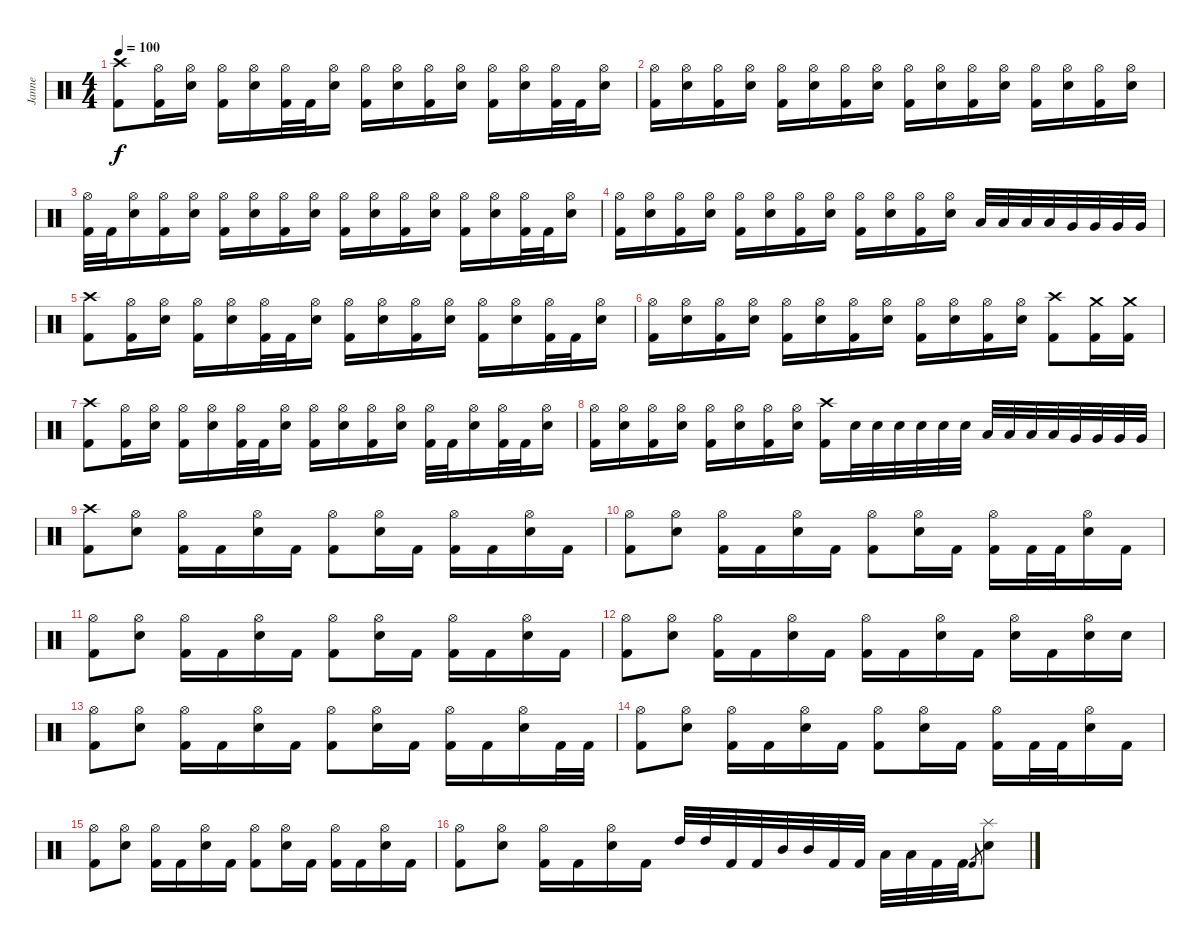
\track ("Janne" "Janne") {instrument percussion}
\staff {score}
\articulation defaults
\ts (4 4)
\tempo 100
\clef neutral
\ks c
("Crash high (hit)" "Kick (hit) 2").8{dy f volume 13} ("Hi-Hat (open)" "Kick (hit) 2").16 ("Hi-Hat (open)" "Electric Snare (hit)").16 ("Hi-Hat (open)" "Kick (hit) 2").16 ("Hi-Hat (open)" "Electric Snare (hit)").16 ("Hi-Hat (open)" "Kick (hit) 2").32 "Kick (hit) 2".32 ("Hi-Hat (open)" "Electric Snare (hit)").16 ("Hi-Hat (open)" "Kick (hit) 2").16 ("Hi-Hat (open)" "Electric Snare (hit)").16 ("Hi-Hat (open)" "Kick (hit) 2").16 ("Hi-Hat (open)" "Electric Snare (hit)").16 ("Hi-Hat (open)" "Kick (hit) 2").16 ("Hi-Hat (open)" "Electric Snare (hit)").16 ("Hi-Hat (open)" "Kick (hit) 2").32 "Kick (hit) 2".32 ("Hi-Hat (open)" "Electric Snare (hit)").16 |
("Hi-Hat (open)" "Kick (hit) 2").16 ("Hi-Hat (open)" "Electric Snare (hit)").16 ("Hi-Hat (open)" "Kick (hit) 2").16 ("Hi-Hat (open)" "Electric Snare (hit)").16 ("Hi-Hat (open)" "Kick (hit) 2").16 ("Hi-Hat (open)" "Electric Snare (hit)").16 ("Hi-Hat (open)" "Kick (hit) 2").16 ("Hi-Hat (open)" "Electric Snare (hit)").16 ("Hi-Hat (open)" "Kick (hit) 2").16 ("Hi-Hat (open)" "Electric Snare (hit)").16 ("Hi-Hat (open)" "Kick (hit) 2").16 ("Hi-Hat (open)" "Electric Snare (hit)").16 ("Hi-Hat (open)" "Kick (hit) 2").16 ("Hi-Hat (open)" "Electric Snare (hit)").16 ("Hi-Hat (open)" "Kick (hit) 2").16 ("Hi-Hat (open)" "Electric Snare (hit)").16 |
("Hi-Hat (open)" "Kick (hit) 2").32 "Kick (hit) 2".32 ("Hi-Hat (open)" "Electric Snare (hit)").16 ("Hi-Hat (open)" "Kick (hit) 2").16 ("Hi-Hat (open)" "Electric Snare (hit)").16 ("Hi-Hat (open)" "Kick (hit) 2").16 ("Hi-Hat (open)" "Electric Snare (hit)").16 ("Hi-Hat (open)" "Kick (hit) 2").16 ("Hi-Hat (open)" "Electric Snare (hit)").16 ("Hi-Hat (open)" "Kick (hit) 2").16 ("Hi-Hat (open)" "Electric Snare (hit)").16 ("Hi-Hat (open)" "Kick (hit) 2").16 ("Hi-Hat (open)" "Electric Snare (hit)").16 ("Hi-Hat (open)" "Kick (hit) 2").16 ("Hi-Hat (open)" "Electric Snare (hit)").16 ("Hi-Hat (open)" "Kick (hit) 2").32 "Kick (hit) 2".32 ("Hi-Hat (open)" "Electric Snare (hit)").16 |
("Hi-Hat (open)" "Kick (hit) 2").16 ("Hi-Hat (open)" "Electric Snare (hit)").16 ("Hi-Hat (open)" "Kick (hit) 2").16 ("Hi-Hat (open)" "Electric Snare (hit)").16 ("Hi-Hat (open)" "Kick (hit) 2").16 ("Hi-Hat (open)" "Electric Snare (hit)").16 ("Hi-Hat (open)" "Kick (hit) 2").16 ("Hi-Hat (open)" "Electric Snare (hit)").16 ("Hi-Hat (open)" "Kick (hit) 2").16 ("Hi-Hat (open)" "Electric Snare (hit)").16 ("Hi-Hat (open)" "Kick (hit) 2").16 ("Hi-Hat (open)" "Electric Snare (hit)").16 "Low Tom (hit)".32 "Low Tom (hit)".32 "Low Tom (hit)".32 "Low Tom (hit)".32 "Very Low Tom (hit)".32 "Very Low Tom (hit)".32 "Very Low Tom (hit)".32 "Very Low Tom (hit)".32 |
("Crash high (hit)" "Kick (hit) 2").8 ("Hi-Hat (open)" "Kick (hit) 2").16 ("Hi-Hat (open)" "Electric Snare (hit)").16 ("Hi-Hat (open)" "Kick (hit) 2").16 ("Hi-Hat (open)" "Electric Snare (hit)").16 ("Hi-Hat (open)" "Kick (hit) 2").32 "Kick (hit) 2".32 ("Hi-Hat (open)" "Electric Snare (hit)").16 ("Hi-Hat (open)" "Kick (hit) 2").16 ("Hi-Hat (open)" "Electric Snare (hit)").16 ("Hi-Hat (open)" "Kick (hit) 2").16 ("Hi-Hat (open)" "Electric Snare (hit)").16 ("Hi-Hat (open)" "Kick (hit) 2").16 ("Hi-Hat (open)" "Electric Snare (hit)").16 ("Hi-Hat (open)" "Kick (hit) 2").32 "Kick (hit) 2".32 ("Hi-Hat (open)" "Electric Snare (hit)").16 |
("Hi-Hat (open)" "Kick (hit) 2").16 ("Hi-Hat (open)" "Electric Snare (hit)").16 ("Hi-Hat (open)" "Kick (hit) 2").16 ("Hi-Hat (open)" "Electric Snare (hit)").16 ("Hi-Hat (open)" "Kick (hit) 2").16 ("Hi-Hat (open)" "Electric Snare (hit)").16 ("Hi-Hat (open)" "Kick (hit) 2").16 ("Hi-Hat (open)" "Electric Snare (hit)").16 ("Hi-Hat (open)" "Kick (hit) 2").16 ("Hi-Hat (open)" "Electric Snare (hit)").16 ("Hi-Hat (open)" "Kick (hit) 2").16 ("Hi-Hat (open)" "Electric Snare (hit)").16 ("Crash high (hit)" "Kick (hit) 2").8 ("Crash medium (hit)" "Kick (hit) 2").16 ("Crash medium (hit)" "Kick (hit) 2").16 |
("Crash high (hit)" "Kick (hit) 2").8 ("Hi-Hat (open)" "Kick (hit) 2").16 ("Hi-Hat (open)" "Electric Snare (hit)").16 ("Hi-Hat (open)" "Kick (hit) 2").16 ("Hi-Hat (open)" "Electric Snare (hit)").16 ("Hi-Hat (open)" "Kick (hit) 2").32 "Kick (hit) 2".32 ("Hi-Hat (open)" "Electric Snare (hit)").16 ("Hi-Hat (open)" "Kick (hit) 2").16 ("Hi-Hat (open)" "Electric Snare (hit)").16 ("Hi-Hat (open)" "Kick (hit) 2").16 ("Hi-Hat (open)" "Electric Snare (hit)").16 ("Hi-Hat (open)" "Kick (hit) 2").32 "Kick (hit) 2".32 ("Hi-Hat (open)" "Electric Snare (hit)").16 ("Hi-Hat (open)" "Kick (hit) 2").32 "Kick (hit) 2".32 ("Hi-Hat (open)" "Electric Snare (hit)").16 |
("Hi-Hat (open)" "Kick (hit) 2").16 ("Hi-Hat (open)" "Electric Snare (hit)").16 ("Hi-Hat (open)" "Kick (hit) 2").16 ("Hi-Hat (open)" "Electric Snare (hit)").16 ("Hi-Hat (open)" "Kick (hit) 2").16 ("Hi-Hat (open)" "Electric Snare (hit)").16 ("Hi-Hat (open)" "Kick (hit) 2").16 ("Hi-Hat (open)" "Electric Snare (hit)").16 ("Crash high (hit)" "Kick (hit) 2").16 "Electric Snare (hit)".32 "Electric Snare (hit)".32 "Electric Snare (hit)".32 "Electric Snare (hit)".32 "Electric Snare (hit)".32 "Electric Snare (hit)".32 "Low Tom (hit)".32 "Low Tom (hit)".32 "Low Tom (hit)".32 "Low Tom (hit)".32 "Very Low Tom (hit)".32 "Very Low Tom (hit)".32 "Very Low Tom (hit)".32 "Very Low Tom (hit)".32 |
("Crash high (hit)" "Kick (hit) 2").8 ("Hi-Hat (open)" "Electric Snare (hit)").8 ("Hi-Hat (open)" "Kick (hit) 2").16 "Kick (hit) 2".16 ("Hi-Hat (open)" "Electric Snare (hit)").16 "Kick (hit) 2".16 ("Hi-Hat (open)" "Kick (hit) 2").8 ("Hi-Hat (open)" "Electric Snare (hit)").16 "Kick (hit) 2".16 ("Hi-Hat (open)" "Kick (hit) 2").16 "Kick (hit) 2".16 ("Hi-Hat (open)" "Electric Snare (hit)").16 "Kick (hit) 2".16 |
("Hi-Hat (open)" "Kick (hit) 2").8 ("Hi-Hat (open)" "Electric Snare (hit)").8 ("Hi-Hat (open)" "Kick (hit) 2").16 "Kick (hit) 2".16 ("Hi-Hat (open)" "Electric Snare (hit)").16 "Kick (hit) 2".16 ("Hi-Hat (open)" "Kick (hit) 2").8 ("Hi-Hat (open)" "Electric Snare (hit)").16 "Kick (hit) 2".16 ("Hi-Hat (open)" "Kick (hit) 2").16 "Kick (hit) 2".32 "Kick (hit) 2".32 ("Hi-Hat (open)" "Electric Snare (hit)").16 "Kick (hit) 2".16 |
("Hi-Hat (open)" "Kick (hit) 2").8 ("Hi-Hat (open)" "Electric Snare (hit)").8 ("Hi-Hat (open)" "Kick (hit) 2").16 "Kick (hit) 2".16 ("Hi-Hat (open)" "Electric Snare (hit)").16 "Kick (hit) 2".16 ("Hi-Hat (open)" "Kick (hit) 2").8 ("Hi-Hat (open)" "Electric Snare (hit)").16 "Kick (hit) 2".16 ("Hi-Hat (open)" "Kick (hit) 2").16 "Kick (hit) 2".16 ("Hi-Hat (open)" "Electric Snare (hit)").16 "Kick (hit) 2".16 |
("Hi-Hat (open)" "Kick (hit) 2").8 ("Hi-Hat (open)" "Electric Snare (hit)").8 ("Hi-Hat (open)" "Kick (hit) 2").16 "Kick (hit) 2".16 ("Hi-Hat (open)" "Electric Snare (hit)").16 "Kick (hit) 2".16 ("Hi-Hat (open)" "Kick (hit) 2").16 "Kick (hit) 2".16 ("Hi-Hat (open)" "Electric Snare (hit)").16 "Kick (hit) 2".16 ("Hi-Hat (open)" "Electric Snare (hit)").16 "Kick (hit) 2".16 ("Hi-Hat (open)" "Electric Snare (hit)").16 "Electric Snare (hit)".16 |
("Hi-Hat (open)" "Kick (hit) 2").8 ("Hi-Hat (open)" "Electric Snare (hit)").8 ("Hi-Hat (open)" "Kick (hit) 2").16 "Kick (hit) 2".16 ("Hi-Hat (open)" "Electric Snare (hit)").16 "Kick (hit) 2".16 ("Hi-Hat (open)" "Kick (hit) 2").8 ("Hi-Hat (open)" "Electric Snare (hit)").16 "Kick (hit) 2".16 ("Hi-Hat (open)" "Kick (hit) 2").16 "Kick (hit) 2".16 ("Hi-Hat (open)" "Electric Snare (hit)").16 "Kick (hit) 2".32 "Kick (hit) 2".32 |
("Hi-Hat (open)" "Kick (hit) 2").8 ("Hi-Hat (open)" "Electric Snare (hit)").8 ("Hi-Hat (open)" "Kick (hit) 2").16 "Kick (hit) 2".16 ("Hi-Hat (open)" "Electric Snare (hit)").16 "Kick (hit) 2".16 ("Hi-Hat (open)" "Kick (hit) 2").8 ("Hi-Hat (open)" "Electric Snare (hit)").16 "Kick (hit) 2".16 ("Hi-Hat (open)" "Kick (hit) 2").16 "Kick (hit) 2".32 "Kick (hit) 2".32 ("Hi-Hat (open)" "Electric Snare (hit)").16 "Kick (hit) 2".16 |
("Hi-Hat (open)" "Kick (hit) 2").8 ("Hi-Hat (open)" "Electric Snare (hit)").8 ("Hi-Hat (open)" "Kick (hit) 2").16 "Kick (hit) 2".16 ("Hi-Hat (open)" "Electric Snare (hit)").16 "Kick (hit) 2".16 ("Hi-Hat (open)" "Kick (hit) 2").8 ("Hi-Hat (open)" "Electric Snare (hit)").16 "Kick (hit) 2".16 ("Hi-Hat (open)" "Kick (hit) 2").16 "Kick (hit) 2".16 ("Hi-Hat (open)" "Electric Snare (hit)").16 "Kick (hit) 2".16 |
("Hi-Hat (open)" "Kick (hit) 2").8 ("Hi-Hat (open)" "Electric Snare (hit)").8 ("Hi-Hat (open)" "Kick (hit) 2").16 "Kick (hit) 2".16 ("Hi-Hat (open)" "Electric Snare (hit)").16 "Kick (hit) 2".16 "High Tom (hit)".32 "High Tom (hit)".32 "Kick (hit) 2".32 "Kick (hit) 2".32 "Mid Tom (hit)".32 "Mid Tom (hit)".32 "Kick (hit) 2".32 "Kick (hit) 2".32 "Low Tom (hit)".32 "Low Tom (hit)".32 "Kick (hit) 2".32 "Kick (hit) 2".32 "Kick (hit) 2".8{gr} ("Splash (hit)" "Electric Snare (hit)").8
